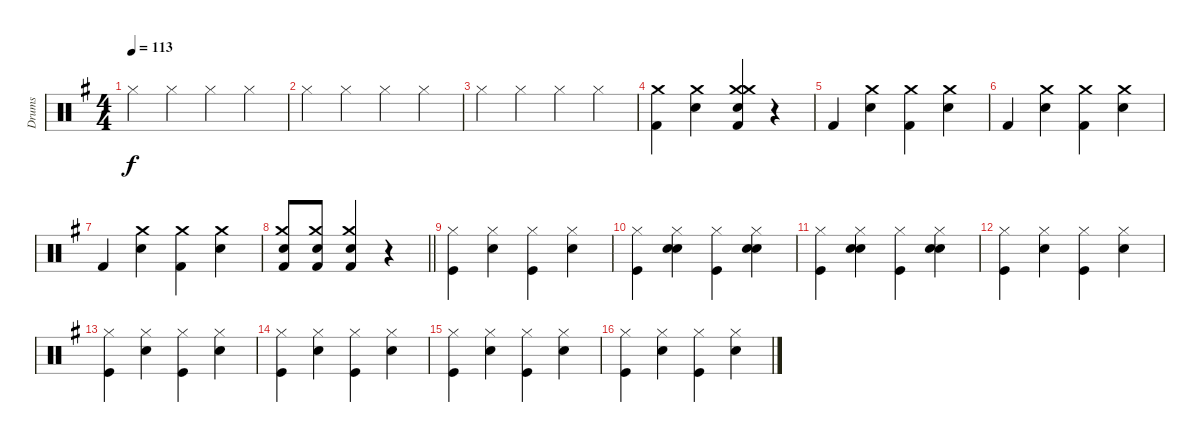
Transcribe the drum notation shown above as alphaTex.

\track ("Drums" "Drums") {instrument percussion}
\staff {score}
\articulation defaults
\ts (4 4)
\tempo 113
\clef neutral
\ks g "Hi-Hat (closed)".4{dy f} "Hi-Hat (closed)".4 "Hi-Hat (closed)".4 "Hi-Hat (closed)".4
|
"Hi-Hat (closed)".4 "Hi-Hat (closed)".4 "Hi-Hat (closed)".4 "Hi-Hat (closed)".4 |
"Hi-Hat (closed)".4 "Hi-Hat (closed)".4 "Hi-Hat (closed)".4 "Hi-Hat (closed)".4 |
("Kick (hit) 2" "Crash medium (hit)").4 ("Snare (hit) 2" "Crash medium (hit)").4 ("Snare (hit) 2" "Crash medium (hit)" "Crash medium (hit)" "Kick (hit) 2").4 r.4 |
"Kick (hit) 2".4 ("Snare (hit) 2" "Crash medium (hit)").4 ("Kick (hit) 2" "Crash medium (hit)").4 ("Snare (hit) 2" "Crash medium (hit)").4 |
"Kick (hit) 2".4 ("Snare (hit) 2" "Crash medium (hit)").4 ("Kick (hit) 2" "Crash medium (hit)").4 ("Snare (hit) 2" "Crash medium (hit)").4 |
"Kick (hit) 2".4 ("Snare (hit) 2" "Crash medium (hit)").4 ("Kick (hit) 2" "Crash medium (hit)").4 ("Snare (hit) 2" "Crash medium (hit)").4 |
\barLineRight lightlight
("Kick (hit) 2" "Snare (hit) 2" "Crash medium (hit)").8 ("Kick (hit) 2" "Snare (hit) 2" "Crash medium (hit)").8 ("Kick (hit) 2" "Snare (hit) 2" "Crash medium (hit)").4 r.4 |
("Kick (hit)" "Hi-Hat (closed)").4 ("Snare (hit) 2" "Hi-Hat (closed)").4 ("Kick (hit)" "Hi-Hat (closed)").4 ("Snare (hit) 2" "Hi-Hat (closed)").4 |
("Kick (hit)" "Hi-Hat (closed)").4 ("Snare (hit) 2" "Snare (hit) 2" "Hi-Hat (closed)").4 ("Kick (hit)" "Hi-Hat (closed)").4 ("Snare (hit) 2" "Snare (hit) 2" "Hi-Hat (closed)").4 |
("Kick (hit)" "Hi-Hat (closed)").4 ("Snare (hit) 2" "Snare (hit) 2" "Hi-Hat (closed)").4 ("Kick (hit)" "Hi-Hat (closed)").4 ("Snare (hit) 2" "Snare (hit) 2" "Hi-Hat (closed)").4 |
("Kick (hit)" "Hi-Hat (closed)").4 ("Snare (hit) 2" "Hi-Hat (closed)").4 ("Kick (hit)" "Hi-Hat (closed)").4 ("Snare (hit) 2" "Hi-Hat (closed)").4 |
("Kick (hit)" "Hi-Hat (closed)").4 ("Snare (hit) 2" "Hi-Hat (closed)").4 ("Kick (hit)" "Hi-Hat (closed)").4 ("Snare (hit) 2" "Hi-Hat (closed)").4 |
("Kick (hit)" "Hi-Hat (closed)").4 ("Snare (hit) 2" "Hi-Hat (closed)").4 ("Kick (hit)" "Hi-Hat (closed)").4 ("Snare (hit) 2" "Hi-Hat (closed)").4 |
("Kick (hit)" "Hi-Hat (closed)").4 ("Snare (hit) 2" "Hi-Hat (closed)").4 ("Kick (hit)" "Hi-Hat (closed)").4 ("Snare (hit) 2" "Hi-Hat (closed)").4 |
("Kick (hit)" "Hi-Hat (closed)").4 ("Snare (hit) 2" "Hi-Hat (closed)").4 ("Kick (hit)" "Hi-Hat (closed)").4 ("Snare (hit) 2" "Hi-Hat (closed)").4
